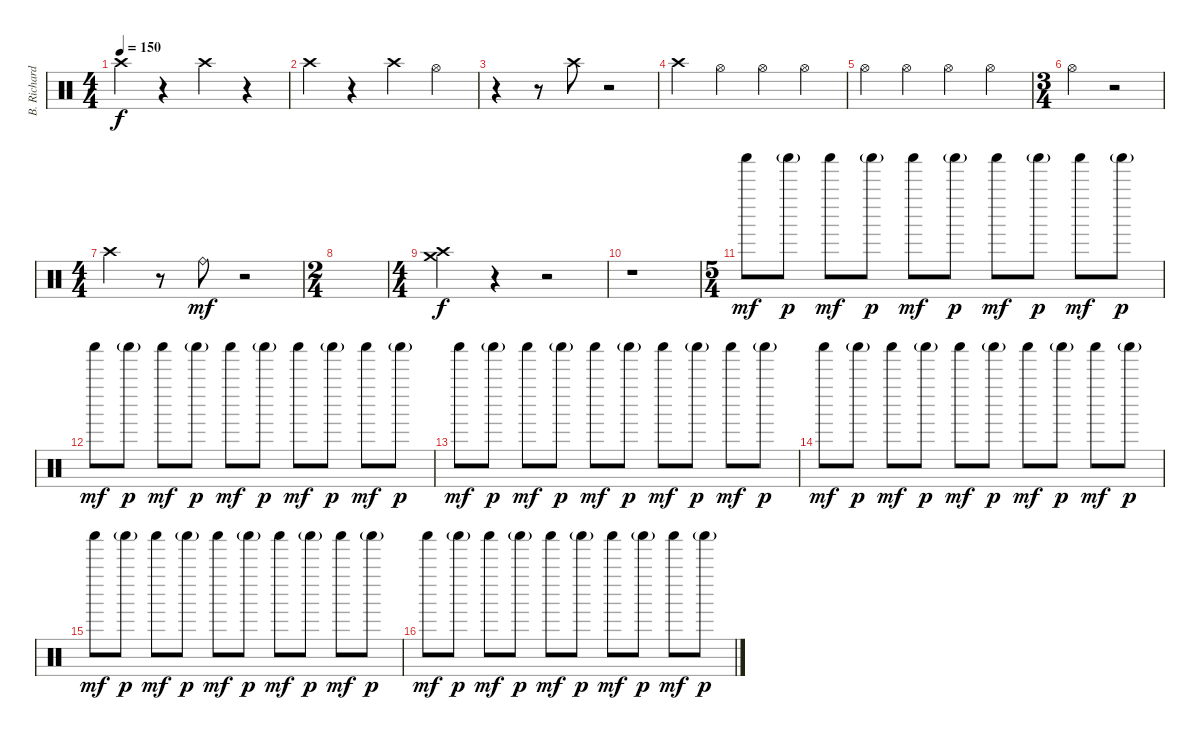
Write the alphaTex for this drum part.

\track ("B. Richardson Drums" "B. Richard") {instrument percussion}
\staff {score}
\articulation defaults
\ts (4 4)
\tempo 150
\clef neutral
\ks c "Crash high (hit)".4{dy f}
r.4 "Crash high (hit)".4 r.4 |
"Crash high (hit)".4 r.4 "Crash high (hit)".4 "Hi-Hat (open)".4 |
r.4 r.8 "Crash high (hit)".8 r.2 |
"Crash high (hit)".4 "Hi-Hat (open)".4 "Hi-Hat (open)".4 "Hi-Hat (open)".4 |
"Hi-Hat (open)".4 "Hi-Hat (open)".4 "Hi-Hat (open)".4 "Hi-Hat (open)".4 |
\ts (3 4)
"Hi-Hat (open)".4 r.2 |
\ts (4 4)
"Crash high (hit)".4 r.8 "Ride (bell)".8{dy mf} r.2 |
\ts (2 4)
|
\ts (4 4)
("Crash high (hit)" "Crash medium (hit)").4{dy f} r.4 r.2 |
r.1 |
\ts (5 4)
"Shaker (hit)".8{dy mf} "Shaker (hit)"{g}.8{dy p} "Shaker (hit)".8{dy mf} "Shaker (hit)"{g}.8{dy p} "Shaker (hit)".8{dy mf} "Shaker (hit)"{g}.8{dy p} "Shaker (hit)".8{dy mf} "Shaker (hit)"{g}.8{dy p} "Shaker (hit)".8{dy mf} "Shaker (hit)"{g}.8{dy p} |
"Shaker (hit)".8{dy mf} "Shaker (hit)"{g}.8{dy p} "Shaker (hit)".8{dy mf} "Shaker (hit)"{g}.8{dy p} "Shaker (hit)".8{dy mf} "Shaker (hit)"{g}.8{dy p} "Shaker (hit)".8{dy mf} "Shaker (hit)"{g}.8{dy p} "Shaker (hit)".8{dy mf} "Shaker (hit)"{g}.8{dy p} |
"Shaker (hit)".8{dy mf} "Shaker (hit)"{g}.8{dy p} "Shaker (hit)".8{dy mf} "Shaker (hit)"{g}.8{dy p} "Shaker (hit)".8{dy mf} "Shaker (hit)"{g}.8{dy p} "Shaker (hit)".8{dy mf} "Shaker (hit)"{g}.8{dy p} "Shaker (hit)".8{dy mf} "Shaker (hit)"{g}.8{dy p} |
"Shaker (hit)".8{dy mf} "Shaker (hit)"{g}.8{dy p} "Shaker (hit)".8{dy mf} "Shaker (hit)"{g}.8{dy p} "Shaker (hit)".8{dy mf} "Shaker (hit)"{g}.8{dy p} "Shaker (hit)".8{dy mf} "Shaker (hit)"{g}.8{dy p} "Shaker (hit)".8{dy mf} "Shaker (hit)"{g}.8{dy p} |
"Shaker (hit)".8{dy mf} "Shaker (hit)"{g}.8{dy p} "Shaker (hit)".8{dy mf} "Shaker (hit)"{g}.8{dy p} "Shaker (hit)".8{dy mf} "Shaker (hit)"{g}.8{dy p} "Shaker (hit)".8{dy mf} "Shaker (hit)"{g}.8{dy p} "Shaker (hit)".8{dy mf} "Shaker (hit)"{g}.8{dy p} |
"Shaker (hit)".8{dy mf} "Shaker (hit)"{g}.8{dy p} "Shaker (hit)".8{dy mf} "Shaker (hit)"{g}.8{dy p} "Shaker (hit)".8{dy mf} "Shaker (hit)"{g}.8{dy p} "Shaker (hit)".8{dy mf} "Shaker (hit)"{g}.8{dy p} "Shaker (hit)".8{dy mf} "Shaker (hit)"{g}.8{dy p}
